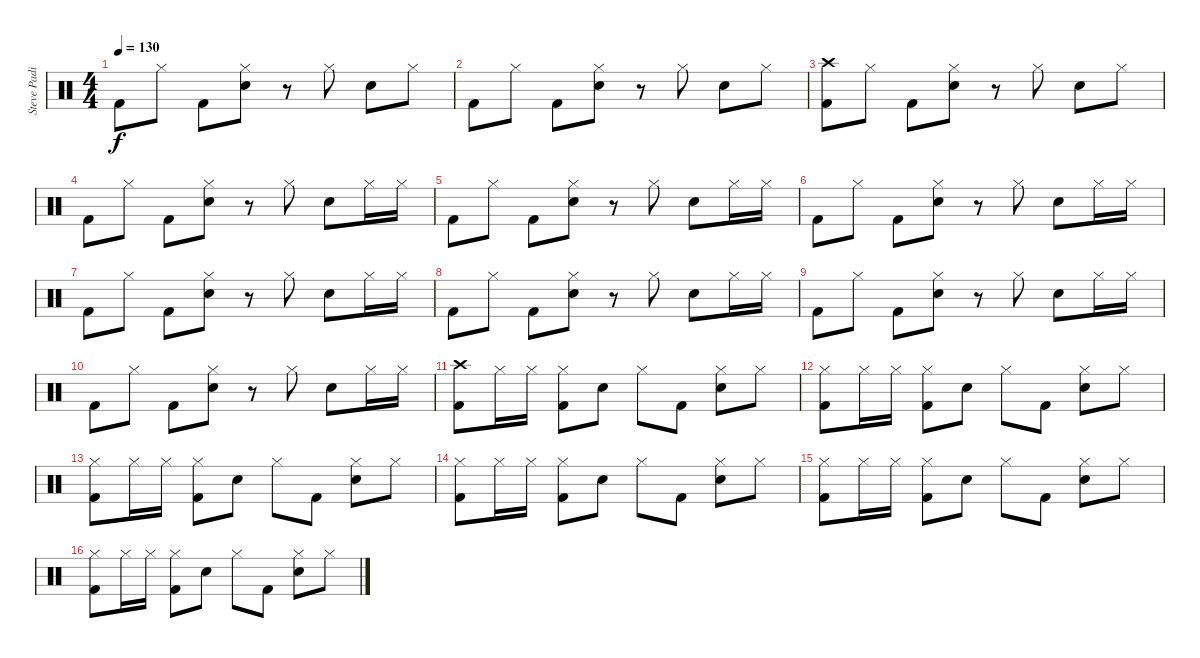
\track ("Steve Padin" "Steve Padi") {instrument percussion}
\staff {score}
\articulation defaults
\ts (4 4)
\tempo 130
\clef neutral
\ks c "Kick (hit) 2".8{dy f} "Hi-Hat (closed)".8 "Kick (hit) 2".8
("Hi-Hat (closed)" "Electric Snare (hit)").8 r.8 "Hi-Hat (closed)".8 "Electric Snare (hit)".8 "Hi-Hat (closed)".8 |
"Kick (hit) 2".8 "Hi-Hat (closed)".8 "Kick (hit) 2".8 ("Hi-Hat (closed)" "Electric Snare (hit)").8 r.8 "Hi-Hat (closed)".8 "Electric Snare (hit)".8 "Hi-Hat (closed)".8 |
("Crash high (hit)" "Kick (hit) 2").8 "Hi-Hat (closed)".8 "Kick (hit) 2".8 ("Hi-Hat (closed)" "Electric Snare (hit)").8 r.8 "Hi-Hat (closed)".8 "Electric Snare (hit)".8 "Hi-Hat (closed)".8 |
"Kick (hit) 2".8 "Hi-Hat (closed)".8 "Kick (hit) 2".8 ("Hi-Hat (closed)" "Electric Snare (hit)").8 r.8 "Hi-Hat (closed)".8 "Electric Snare (hit)".8 "Hi-Hat (closed)".16 "Hi-Hat (closed)".16 |
"Kick (hit) 2".8 "Hi-Hat (closed)".8 "Kick (hit) 2".8 ("Hi-Hat (closed)" "Electric Snare (hit)").8 r.8 "Hi-Hat (closed)".8 "Electric Snare (hit)".8 "Hi-Hat (closed)".16 "Hi-Hat (closed)".16 |
"Kick (hit) 2".8 "Hi-Hat (closed)".8 "Kick (hit) 2".8 ("Hi-Hat (closed)" "Electric Snare (hit)").8 r.8 "Hi-Hat (closed)".8 "Electric Snare (hit)".8 "Hi-Hat (closed)".16 "Hi-Hat (closed)".16 |
"Kick (hit) 2".8 "Hi-Hat (closed)".8 "Kick (hit) 2".8 ("Hi-Hat (closed)" "Electric Snare (hit)").8 r.8 "Hi-Hat (closed)".8 "Electric Snare (hit)".8 "Hi-Hat (closed)".16 "Hi-Hat (closed)".16 |
"Kick (hit) 2".8 "Hi-Hat (closed)".8 "Kick (hit) 2".8 ("Hi-Hat (closed)" "Electric Snare (hit)").8 r.8 "Hi-Hat (closed)".8 "Electric Snare (hit)".8 "Hi-Hat (closed)".16 "Hi-Hat (closed)".16 |
"Kick (hit) 2".8 "Hi-Hat (closed)".8 "Kick (hit) 2".8 ("Hi-Hat (closed)" "Electric Snare (hit)").8 r.8 "Hi-Hat (closed)".8 "Electric Snare (hit)".8 "Hi-Hat (closed)".16 "Hi-Hat (closed)".16 |
"Kick (hit) 2".8 "Hi-Hat (closed)".8 "Kick (hit) 2".8 ("Hi-Hat (closed)" "Electric Snare (hit)").8 r.8 "Hi-Hat (closed)".8 "Electric Snare (hit)".8 "Hi-Hat (closed)".16 "Hi-Hat (closed)".16 |
("Crash high (hit)" "Kick (hit) 2").8 "Hi-Hat (closed)".16 "Hi-Hat (closed)".16 ("Hi-Hat (closed)" "Kick (hit) 2").8 "Electric Snare (hit)".8 "Hi-Hat (closed)".8 "Kick (hit) 2".8 ("Hi-Hat (closed)" "Electric Snare (hit)").8 "Hi-Hat (closed)".8 |
("Hi-Hat (closed)" "Kick (hit) 2").8 "Hi-Hat (closed)".16 "Hi-Hat (closed)".16 ("Hi-Hat (closed)" "Kick (hit) 2").8 "Electric Snare (hit)".8 "Hi-Hat (closed)".8 "Kick (hit) 2".8 ("Hi-Hat (closed)" "Electric Snare (hit)").8 "Hi-Hat (closed)".8 |
("Hi-Hat (closed)" "Kick (hit) 2").8 "Hi-Hat (closed)".16 "Hi-Hat (closed)".16 ("Hi-Hat (closed)" "Kick (hit) 2").8 "Electric Snare (hit)".8 "Hi-Hat (closed)".8 "Kick (hit) 2".8 ("Hi-Hat (closed)" "Electric Snare (hit)").8 "Hi-Hat (closed)".8 |
("Hi-Hat (closed)" "Kick (hit) 2").8 "Hi-Hat (closed)".16 "Hi-Hat (closed)".16 ("Hi-Hat (closed)" "Kick (hit) 2").8 "Electric Snare (hit)".8 "Hi-Hat (closed)".8 "Kick (hit) 2".8 ("Hi-Hat (closed)" "Electric Snare (hit)").8 "Hi-Hat (closed)".8 |
("Hi-Hat (closed)" "Kick (hit) 2").8 "Hi-Hat (closed)".16 "Hi-Hat (closed)".16 ("Hi-Hat (closed)" "Kick (hit) 2").8 "Electric Snare (hit)".8 "Hi-Hat (closed)".8 "Kick (hit) 2".8 ("Hi-Hat (closed)" "Electric Snare (hit)").8 "Hi-Hat (closed)".8 |
("Hi-Hat (closed)" "Kick (hit) 2").8 "Hi-Hat (closed)".16 "Hi-Hat (closed)".16 ("Hi-Hat (closed)" "Kick (hit) 2").8 "Electric Snare (hit)".8 "Hi-Hat (closed)".8 "Kick (hit) 2".8 ("Hi-Hat (closed)" "Electric Snare (hit)").8 "Hi-Hat (closed)".8
